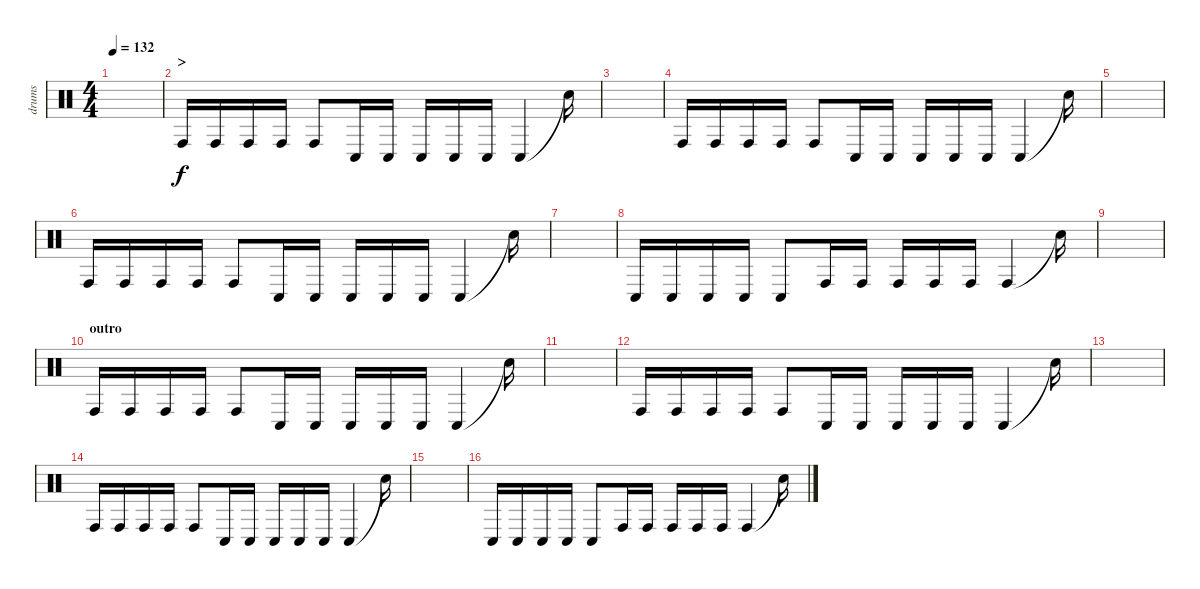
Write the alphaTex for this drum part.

\track ("drums" "drums") {instrument percussion}
\staff {score}
\articulation defaults
\ts (4 4)
\tempo 132
\clef neutral
\ks c
|
\section ("" ">")
"Conga high (hit)".16 "Conga high (hit)".16 "Conga high (hit)".16 "Conga high (hit)".16 "Conga high (hit)".8 "Conga low (hit)".16 "Conga low (hit)".16 "Conga low (hit)".16 "Conga low (hit)".16 "Conga low (hit)".16 "Conga low (hit)".4 "Snare (hit)"{t}.16 |
|
"Conga high (hit)".16 "Conga high (hit)".16 "Conga high (hit)".16 "Conga high (hit)".16 "Conga high (hit)".8 "Conga low (hit)".16 "Conga low (hit)".16 "Conga low (hit)".16 "Conga low (hit)".16 "Conga low (hit)".16 "Conga low (hit)".4 "Snare (hit)"{t}.16 |
|
"Conga high (hit)".16 "Conga high (hit)".16 "Conga high (hit)".16 "Conga high (hit)".16 "Conga high (hit)".8 "Conga low (hit)".16 "Conga low (hit)".16 "Conga low (hit)".16 "Conga low (hit)".16 "Conga low (hit)".16 "Conga low (hit)".4 "Snare (hit)"{t}.16 |
|
"Conga low (hit)".16 "Conga low (hit)".16 "Conga low (hit)".16 "Conga low (hit)".16 "Conga low (hit)".8 "Conga high (hit)".16 "Conga high (hit)".16 "Conga high (hit)".16 "Conga high (hit)".16 "Conga high (hit)".16 "Conga high (hit)".4 "Snare (hit)"{t}.16 |
|
\section ("" "outro")
"Conga high (hit)".16 "Conga high (hit)".16 "Conga high (hit)".16 "Conga high (hit)".16 "Conga high (hit)".8 "Conga low (hit)".16 "Conga low (hit)".16 "Conga low (hit)".16 "Conga low (hit)".16 "Conga low (hit)".16 "Conga low (hit)".4 "Snare (hit)"{t}.16 |
|
"Conga high (hit)".16 "Conga high (hit)".16 "Conga high (hit)".16 "Conga high (hit)".16 "Conga high (hit)".8 "Conga low (hit)".16 "Conga low (hit)".16 "Conga low (hit)".16 "Conga low (hit)".16 "Conga low (hit)".16 "Conga low (hit)".4 "Snare (hit)"{t}.16 |
|
"Conga high (hit)".16 "Conga high (hit)".16 "Conga high (hit)".16 "Conga high (hit)".16 "Conga high (hit)".8 "Conga low (hit)".16 "Conga low (hit)".16 "Conga low (hit)".16 "Conga low (hit)".16 "Conga low (hit)".16 "Conga low (hit)".4 "Snare (hit)"{t}.16 |
|
"Conga low (hit)".16 "Conga low (hit)".16 "Conga low (hit)".16 "Conga low (hit)".16 "Conga low (hit)".8 "Conga high (hit)".16 "Conga high (hit)".16 "Conga high (hit)".16 "Conga high (hit)".16 "Conga high (hit)".16 "Conga high (hit)".4 "Snare (hit)"{t}.16
